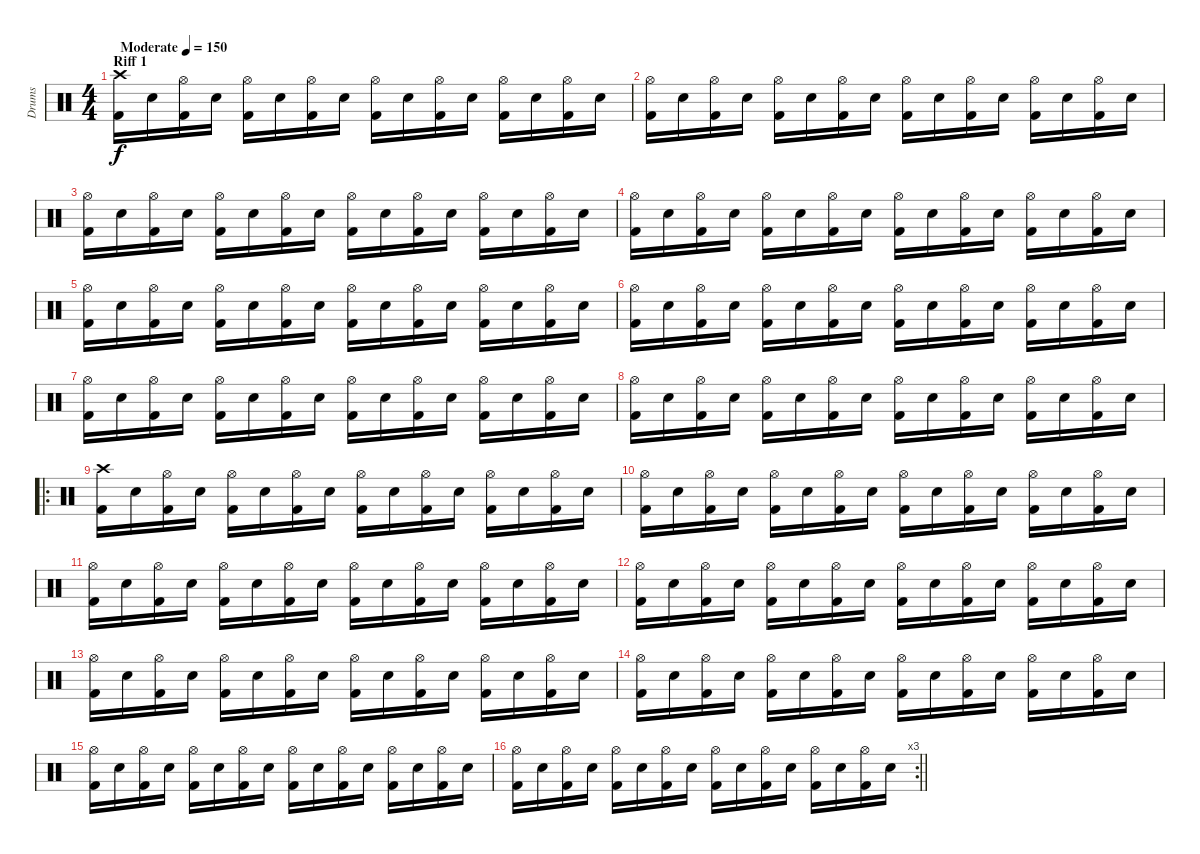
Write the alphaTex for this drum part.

\track ("Drums" "Drums") {instrument percussion}
\staff {score}
\articulation defaults
\ts (4 4)
\section ("" "Riff 1")
\tempo (150 "Moderate")
\clef neutral
\ks c
("Crash high (hit)" "Kick (hit) 2").16{dy f} "Electric Snare (hit)".16 ("Hi-Hat (open)" "Kick (hit) 2").16 "Electric Snare (hit)".16 ("Hi-Hat (open)" "Kick (hit) 2").16 "Electric Snare (hit)".16 ("Hi-Hat (open)" "Kick (hit) 2").16 "Electric Snare (hit)".16 ("Hi-Hat (open)" "Kick (hit) 2").16 "Electric Snare (hit)".16 ("Hi-Hat (open)" "Kick (hit) 2").16 "Electric Snare (hit)".16 ("Hi-Hat (open)" "Kick (hit) 2").16 "Electric Snare (hit)".16 ("Hi-Hat (open)" "Kick (hit) 2").16 "Electric Snare (hit)".16 |
("Hi-Hat (open)" "Kick (hit) 2").16 "Electric Snare (hit)".16 ("Hi-Hat (open)" "Kick (hit) 2").16 "Electric Snare (hit)".16 ("Hi-Hat (open)" "Kick (hit) 2").16 "Electric Snare (hit)".16 ("Hi-Hat (open)" "Kick (hit) 2").16 "Electric Snare (hit)".16 ("Hi-Hat (open)" "Kick (hit) 2").16 "Electric Snare (hit)".16 ("Hi-Hat (open)" "Kick (hit) 2").16 "Electric Snare (hit)".16 ("Hi-Hat (open)" "Kick (hit) 2").16 "Electric Snare (hit)".16 ("Hi-Hat (open)" "Kick (hit) 2").16 "Electric Snare (hit)".16 |
("Hi-Hat (open)" "Kick (hit) 2").16 "Electric Snare (hit)".16 ("Hi-Hat (open)" "Kick (hit) 2").16 "Electric Snare (hit)".16 ("Hi-Hat (open)" "Kick (hit) 2").16 "Electric Snare (hit)".16 ("Hi-Hat (open)" "Kick (hit) 2").16 "Electric Snare (hit)".16 ("Hi-Hat (open)" "Kick (hit) 2").16 "Electric Snare (hit)".16 ("Hi-Hat (open)" "Kick (hit) 2").16 "Electric Snare (hit)".16 ("Hi-Hat (open)" "Kick (hit) 2").16 "Electric Snare (hit)".16 ("Hi-Hat (open)" "Kick (hit) 2").16 "Electric Snare (hit)".16 |
("Hi-Hat (open)" "Kick (hit) 2").16 "Electric Snare (hit)".16 ("Hi-Hat (open)" "Kick (hit) 2").16 "Electric Snare (hit)".16 ("Hi-Hat (open)" "Kick (hit) 2").16 "Electric Snare (hit)".16 ("Hi-Hat (open)" "Kick (hit) 2").16 "Electric Snare (hit)".16 ("Hi-Hat (open)" "Kick (hit) 2").16 "Electric Snare (hit)".16 ("Hi-Hat (open)" "Kick (hit) 2").16 "Electric Snare (hit)".16 ("Hi-Hat (open)" "Kick (hit) 2").16 "Electric Snare (hit)".16 ("Hi-Hat (open)" "Kick (hit) 2").16 "Electric Snare (hit)".16 |
("Hi-Hat (open)" "Kick (hit) 2").16 "Electric Snare (hit)".16 ("Hi-Hat (open)" "Kick (hit) 2").16 "Electric Snare (hit)".16 ("Hi-Hat (open)" "Kick (hit) 2").16 "Electric Snare (hit)".16 ("Hi-Hat (open)" "Kick (hit) 2").16 "Electric Snare (hit)".16 ("Hi-Hat (open)" "Kick (hit) 2").16 "Electric Snare (hit)".16 ("Hi-Hat (open)" "Kick (hit) 2").16 "Electric Snare (hit)".16 ("Hi-Hat (open)" "Kick (hit) 2").16 "Electric Snare (hit)".16 ("Hi-Hat (open)" "Kick (hit) 2").16 "Electric Snare (hit)".16 |
("Hi-Hat (open)" "Kick (hit) 2").16 "Electric Snare (hit)".16 ("Hi-Hat (open)" "Kick (hit) 2").16 "Electric Snare (hit)".16 ("Hi-Hat (open)" "Kick (hit) 2").16 "Electric Snare (hit)".16 ("Hi-Hat (open)" "Kick (hit) 2").16 "Electric Snare (hit)".16 ("Hi-Hat (open)" "Kick (hit) 2").16 "Electric Snare (hit)".16 ("Hi-Hat (open)" "Kick (hit) 2").16 "Electric Snare (hit)".16 ("Hi-Hat (open)" "Kick (hit) 2").16 "Electric Snare (hit)".16 ("Hi-Hat (open)" "Kick (hit) 2").16 "Electric Snare (hit)".16 |
("Hi-Hat (open)" "Kick (hit) 2").16 "Electric Snare (hit)".16 ("Hi-Hat (open)" "Kick (hit) 2").16 "Electric Snare (hit)".16 ("Hi-Hat (open)" "Kick (hit) 2").16 "Electric Snare (hit)".16 ("Hi-Hat (open)" "Kick (hit) 2").16 "Electric Snare (hit)".16 ("Hi-Hat (open)" "Kick (hit) 2").16 "Electric Snare (hit)".16 ("Hi-Hat (open)" "Kick (hit) 2").16 "Electric Snare (hit)".16 ("Hi-Hat (open)" "Kick (hit) 2").16 "Electric Snare (hit)".16 ("Hi-Hat (open)" "Kick (hit) 2").16 "Electric Snare (hit)".16 |
("Hi-Hat (open)" "Kick (hit) 2").16 "Electric Snare (hit)".16 ("Hi-Hat (open)" "Kick (hit) 2").16 "Electric Snare (hit)".16 ("Hi-Hat (open)" "Kick (hit) 2").16 "Electric Snare (hit)".16 ("Hi-Hat (open)" "Kick (hit) 2").16 "Electric Snare (hit)".16 ("Hi-Hat (open)" "Kick (hit) 2").16 "Electric Snare (hit)".16 ("Hi-Hat (open)" "Kick (hit) 2").16 "Electric Snare (hit)".16 ("Hi-Hat (open)" "Kick (hit) 2").16 "Electric Snare (hit)".16 ("Hi-Hat (open)" "Kick (hit) 2").16 "Electric Snare (hit)".16 |
\ro
("Crash high (hit)" "Kick (hit) 2").16 "Electric Snare (hit)".16 ("Hi-Hat (open)" "Kick (hit) 2").16 "Electric Snare (hit)".16 ("Hi-Hat (open)" "Kick (hit) 2").16 "Electric Snare (hit)".16 ("Hi-Hat (open)" "Kick (hit) 2").16 "Electric Snare (hit)".16 ("Hi-Hat (open)" "Kick (hit) 2").16 "Electric Snare (hit)".16 ("Hi-Hat (open)" "Kick (hit) 2").16 "Electric Snare (hit)".16 ("Hi-Hat (open)" "Kick (hit) 2").16 "Electric Snare (hit)".16 ("Hi-Hat (open)" "Kick (hit) 2").16 "Electric Snare (hit)".16 |
("Hi-Hat (open)" "Kick (hit) 2").16 "Electric Snare (hit)".16 ("Hi-Hat (open)" "Kick (hit) 2").16 "Electric Snare (hit)".16 ("Hi-Hat (open)" "Kick (hit) 2").16 "Electric Snare (hit)".16 ("Hi-Hat (open)" "Kick (hit) 2").16 "Electric Snare (hit)".16 ("Hi-Hat (open)" "Kick (hit) 2").16 "Electric Snare (hit)".16 ("Hi-Hat (open)" "Kick (hit) 2").16 "Electric Snare (hit)".16 ("Hi-Hat (open)" "Kick (hit) 2").16 "Electric Snare (hit)".16 ("Hi-Hat (open)" "Kick (hit) 2").16 "Electric Snare (hit)".16 |
("Hi-Hat (open)" "Kick (hit) 2").16 "Electric Snare (hit)".16 ("Hi-Hat (open)" "Kick (hit) 2").16 "Electric Snare (hit)".16 ("Hi-Hat (open)" "Kick (hit) 2").16 "Electric Snare (hit)".16 ("Hi-Hat (open)" "Kick (hit) 2").16 "Electric Snare (hit)".16 ("Hi-Hat (open)" "Kick (hit) 2").16 "Electric Snare (hit)".16 ("Hi-Hat (open)" "Kick (hit) 2").16 "Electric Snare (hit)".16 ("Hi-Hat (open)" "Kick (hit) 2").16 "Electric Snare (hit)".16 ("Hi-Hat (open)" "Kick (hit) 2").16 "Electric Snare (hit)".16 |
("Hi-Hat (open)" "Kick (hit) 2").16 "Electric Snare (hit)".16 ("Hi-Hat (open)" "Kick (hit) 2").16 "Electric Snare (hit)".16 ("Hi-Hat (open)" "Kick (hit) 2").16 "Electric Snare (hit)".16 ("Hi-Hat (open)" "Kick (hit) 2").16 "Electric Snare (hit)".16 ("Hi-Hat (open)" "Kick (hit) 2").16 "Electric Snare (hit)".16 ("Hi-Hat (open)" "Kick (hit) 2").16 "Electric Snare (hit)".16 ("Hi-Hat (open)" "Kick (hit) 2").16 "Electric Snare (hit)".16 ("Hi-Hat (open)" "Kick (hit) 2").16 "Electric Snare (hit)".16 |
("Hi-Hat (open)" "Kick (hit) 2").16 "Electric Snare (hit)".16 ("Hi-Hat (open)" "Kick (hit) 2").16 "Electric Snare (hit)".16 ("Hi-Hat (open)" "Kick (hit) 2").16 "Electric Snare (hit)".16 ("Hi-Hat (open)" "Kick (hit) 2").16 "Electric Snare (hit)".16 ("Hi-Hat (open)" "Kick (hit) 2").16 "Electric Snare (hit)".16 ("Hi-Hat (open)" "Kick (hit) 2").16 "Electric Snare (hit)".16 ("Hi-Hat (open)" "Kick (hit) 2").16 "Electric Snare (hit)".16 ("Hi-Hat (open)" "Kick (hit) 2").16 "Electric Snare (hit)".16 |
("Hi-Hat (open)" "Kick (hit) 2").16 "Electric Snare (hit)".16 ("Hi-Hat (open)" "Kick (hit) 2").16 "Electric Snare (hit)".16 ("Hi-Hat (open)" "Kick (hit) 2").16 "Electric Snare (hit)".16 ("Hi-Hat (open)" "Kick (hit) 2").16 "Electric Snare (hit)".16 ("Hi-Hat (open)" "Kick (hit) 2").16 "Electric Snare (hit)".16 ("Hi-Hat (open)" "Kick (hit) 2").16 "Electric Snare (hit)".16 ("Hi-Hat (open)" "Kick (hit) 2").16 "Electric Snare (hit)".16 ("Hi-Hat (open)" "Kick (hit) 2").16 "Electric Snare (hit)".16 |
("Hi-Hat (open)" "Kick (hit) 2").16 "Electric Snare (hit)".16 ("Hi-Hat (open)" "Kick (hit) 2").16 "Electric Snare (hit)".16 ("Hi-Hat (open)" "Kick (hit) 2").16 "Electric Snare (hit)".16 ("Hi-Hat (open)" "Kick (hit) 2").16 "Electric Snare (hit)".16 ("Hi-Hat (open)" "Kick (hit) 2").16 "Electric Snare (hit)".16 ("Hi-Hat (open)" "Kick (hit) 2").16 "Electric Snare (hit)".16 ("Hi-Hat (open)" "Kick (hit) 2").16 "Electric Snare (hit)".16 ("Hi-Hat (open)" "Kick (hit) 2").16 "Electric Snare (hit)".16 |
\rc 3
\barLineRight lightlight
("Hi-Hat (open)" "Kick (hit) 2").16 "Electric Snare (hit)".16 ("Hi-Hat (open)" "Kick (hit) 2").16 "Electric Snare (hit)".16 ("Hi-Hat (open)" "Kick (hit) 2").16 "Electric Snare (hit)".16 ("Hi-Hat (open)" "Kick (hit) 2").16 "Electric Snare (hit)".16 ("Hi-Hat (open)" "Kick (hit) 2").16 "Electric Snare (hit)".16 ("Hi-Hat (open)" "Kick (hit) 2").16 "Electric Snare (hit)".16 ("Hi-Hat (open)" "Kick (hit) 2").16 "Electric Snare (hit)".16 ("Hi-Hat (open)" "Kick (hit) 2").16 "Electric Snare (hit)".16
